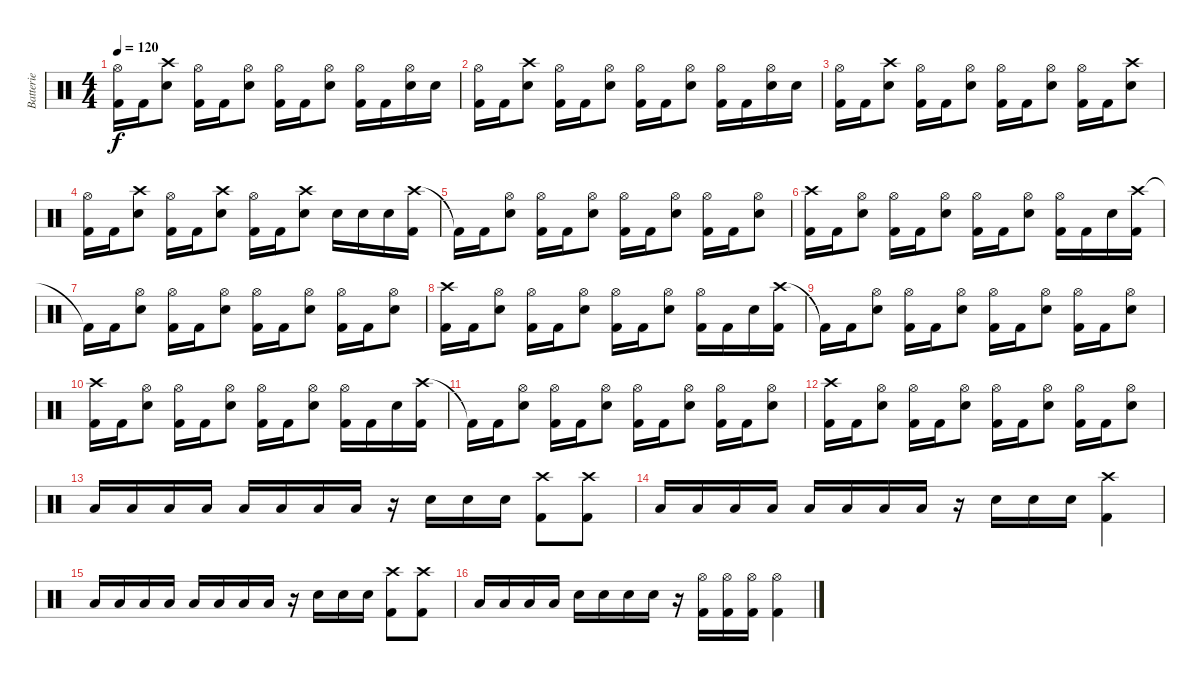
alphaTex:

\track ("Batterie" "Batterie") {instrument percussion}
\staff {score}
\articulation defaults
\ts (4 4)
\tempo 120
\clef neutral
\ks c
("Hi-Hat (open)" "Kick (hit) 2").16{dy f} "Kick (hit) 2".16 ("Crash high (hit)" "Electric Snare (hit)").8 ("Hi-Hat (open)" "Kick (hit) 2").16 "Kick (hit) 2".16 ("Hi-Hat (open)" "Electric Snare (hit)").8 ("Hi-Hat (open)" "Kick (hit) 2").16 "Kick (hit) 2".16 ("Hi-Hat (open)" "Electric Snare (hit)").8 ("Hi-Hat (open)" "Kick (hit) 2").16 "Kick (hit) 2".16 ("Hi-Hat (open)" "Electric Snare (hit)").16 "Electric Snare (hit)".16 |
("Hi-Hat (open)" "Kick (hit) 2").16 "Kick (hit) 2".16 ("Crash high (hit)" "Electric Snare (hit)").8 ("Hi-Hat (open)" "Kick (hit) 2").16 "Kick (hit) 2".16 ("Hi-Hat (open)" "Electric Snare (hit)").8 ("Hi-Hat (open)" "Kick (hit) 2").16 "Kick (hit) 2".16 ("Hi-Hat (open)" "Electric Snare (hit)").8 ("Hi-Hat (open)" "Kick (hit) 2").16 "Kick (hit) 2".16 ("Hi-Hat (open)" "Electric Snare (hit)").16 "Electric Snare (hit)".16 |
("Hi-Hat (open)" "Kick (hit) 2").16 "Kick (hit) 2".16 ("Crash high (hit)" "Electric Snare (hit)").8 ("Hi-Hat (open)" "Kick (hit) 2").16 "Kick (hit) 2".16 ("Hi-Hat (open)" "Electric Snare (hit)").8 ("Hi-Hat (open)" "Kick (hit) 2").16 "Kick (hit) 2".16 ("Hi-Hat (open)" "Electric Snare (hit)").8 ("Hi-Hat (open)" "Kick (hit) 2").16 "Kick (hit) 2".16 ("Crash high (hit)" "Electric Snare (hit)").8 |
("Hi-Hat (open)" "Kick (hit) 2").16 "Kick (hit) 2".16 ("Crash high (hit)" "Electric Snare (hit)").8 ("Hi-Hat (open)" "Kick (hit) 2").16 "Kick (hit) 2".16 ("Crash high (hit)" "Electric Snare (hit)").8 ("Hi-Hat (open)" "Kick (hit) 2").16 "Kick (hit) 2".16 ("Crash high (hit)" "Electric Snare (hit)").8 "Electric Snare (hit)".16 "Electric Snare (hit)".16 "Electric Snare (hit)".16 ("Crash high (hit)" "Kick (hit) 2").16 |
"Kick (hit) 2"{t}.16 "Kick (hit) 2".16 ("Hi-Hat (open)" "Electric Snare (hit)").8 ("Hi-Hat (open)" "Kick (hit) 2").16 "Kick (hit) 2".16 ("Hi-Hat (open)" "Electric Snare (hit)").8 ("Hi-Hat (open)" "Kick (hit) 2").16 "Kick (hit) 2".16 ("Hi-Hat (open)" "Electric Snare (hit)").8 ("Hi-Hat (open)" "Kick (hit) 2").16 "Kick (hit) 2".16 ("Hi-Hat (open)" "Electric Snare (hit)").8 |
("Crash high (hit)" "Kick (hit) 2").16 "Kick (hit) 2".16 ("Hi-Hat (open)" "Electric Snare (hit)").8 ("Hi-Hat (open)" "Kick (hit) 2").16 "Kick (hit) 2".16 ("Hi-Hat (open)" "Electric Snare (hit)").8 ("Hi-Hat (open)" "Kick (hit) 2").16 "Kick (hit) 2".16 ("Hi-Hat (open)" "Electric Snare (hit)").8 ("Hi-Hat (open)" "Kick (hit) 2").16 "Kick (hit) 2".16 "Snare (hit) 2".16 ("Crash high (hit)" "Kick (hit) 2").16 |
"Kick (hit) 2"{t}.16 "Kick (hit) 2".16 ("Hi-Hat (open)" "Electric Snare (hit)").8 ("Hi-Hat (open)" "Kick (hit) 2").16 "Kick (hit) 2".16 ("Hi-Hat (open)" "Electric Snare (hit)").8 ("Hi-Hat (open)" "Kick (hit) 2").16 "Kick (hit) 2".16 ("Hi-Hat (open)" "Electric Snare (hit)").8 ("Hi-Hat (open)" "Kick (hit) 2").16 "Kick (hit) 2".16 ("Hi-Hat (open)" "Electric Snare (hit)").8 |
("Crash high (hit)" "Kick (hit) 2").16 "Kick (hit) 2".16 ("Hi-Hat (open)" "Electric Snare (hit)").8 ("Hi-Hat (open)" "Kick (hit) 2").16 "Kick (hit) 2".16 ("Hi-Hat (open)" "Electric Snare (hit)").8 ("Hi-Hat (open)" "Kick (hit) 2").16 "Kick (hit) 2".16 ("Hi-Hat (open)" "Electric Snare (hit)").8 ("Hi-Hat (open)" "Kick (hit) 2").16 "Kick (hit) 2".16 "Electric Snare (hit)".16 ("Crash high (hit)" "Kick (hit) 2").16 |
"Kick (hit) 2"{t}.16 "Kick (hit) 2".16 ("Hi-Hat (open)" "Electric Snare (hit)").8 ("Hi-Hat (open)" "Kick (hit) 2").16 "Kick (hit) 2".16 ("Hi-Hat (open)" "Electric Snare (hit)").8 ("Hi-Hat (open)" "Kick (hit) 2").16 "Kick (hit) 2".16 ("Hi-Hat (open)" "Electric Snare (hit)").8 ("Hi-Hat (open)" "Kick (hit) 2").16 "Kick (hit) 2".16 ("Hi-Hat (open)" "Electric Snare (hit)").8 |
("Crash high (hit)" "Kick (hit) 2").16 "Kick (hit) 2".16 ("Hi-Hat (open)" "Electric Snare (hit)").8 ("Hi-Hat (open)" "Kick (hit) 2").16 "Kick (hit) 2".16 ("Hi-Hat (open)" "Electric Snare (hit)").8 ("Hi-Hat (open)" "Kick (hit) 2").16 "Kick (hit) 2".16 ("Hi-Hat (open)" "Electric Snare (hit)").8 ("Hi-Hat (open)" "Kick (hit) 2").16 "Kick (hit) 2".16 "Electric Snare (hit)".16 ("Crash high (hit)" "Kick (hit) 2").16 |
"Kick (hit) 2"{t}.16 "Kick (hit) 2".16 ("Hi-Hat (open)" "Electric Snare (hit)").8 ("Hi-Hat (open)" "Kick (hit) 2").16 "Kick (hit) 2".16 ("Hi-Hat (open)" "Electric Snare (hit)").8 ("Hi-Hat (open)" "Kick (hit) 2").16 "Kick (hit) 2".16 ("Hi-Hat (open)" "Electric Snare (hit)").8 ("Hi-Hat (open)" "Kick (hit) 2").16 "Kick (hit) 2".16 ("Hi-Hat (open)" "Electric Snare (hit)").8 |
("Crash high (hit)" "Kick (hit) 2").16 "Kick (hit) 2".16 ("Hi-Hat (open)" "Electric Snare (hit)").8 ("Hi-Hat (open)" "Kick (hit) 2").16 "Kick (hit) 2".16 ("Hi-Hat (open)" "Electric Snare (hit)").8 ("Hi-Hat (open)" "Kick (hit) 2").16 "Kick (hit) 2".16 ("Hi-Hat (open)" "Electric Snare (hit)").8 ("Hi-Hat (open)" "Kick (hit) 2").16 "Kick (hit) 2".16 ("Hi-Hat (open)" "Electric Snare (hit)").8 |
"Low Tom (hit)".16 "Low Tom (hit)".16 "Low Tom (hit)".16 "Low Tom (hit)".16 "Low Floor Tom (hit)".16 "Low Floor Tom (hit)".16 "Low Floor Tom (hit)".16 "Low Floor Tom (hit)".16 r.16 "Electric Snare (hit)".16 "Electric Snare (hit)".16 "Electric Snare (hit)".16 ("Crash high (hit)" "Kick (hit) 2").8 ("Crash high (hit)" "Kick (hit) 2").8 |
"Low Tom (hit)".16 "Low Tom (hit)".16 "Low Tom (hit)".16 "Low Tom (hit)".16 "Low Floor Tom (hit)".16 "Low Floor Tom (hit)".16 "Low Floor Tom (hit)".16 "Low Floor Tom (hit)".16 r.16 "Electric Snare (hit)".16 "Electric Snare (hit)".16 "Electric Snare (hit)".16 ("Crash high (hit)" "Kick (hit) 2").4 |
"Low Tom (hit)".16 "Low Tom (hit)".16 "Low Tom (hit)".16 "Low Tom (hit)".16 "Low Floor Tom (hit)".16 "Low Floor Tom (hit)".16 "Low Floor Tom (hit)".16 "Low Floor Tom (hit)".16 r.16 "Electric Snare (hit)".16 "Electric Snare (hit)".16 "Electric Snare (hit)".16 ("Crash high (hit)" "Kick (hit) 2").8 ("Crash high (hit)" "Kick (hit) 2").8 |
"Low Tom (hit)".16 "Low Tom (hit)".16 "Low Tom (hit)".16 "Low Tom (hit)".16 "Electric Snare (hit)".16 "Electric Snare (hit)".16 "Electric Snare (hit)".16 "Electric Snare (hit)".16 r.16 ("Hi-Hat (open)" "Kick (hit) 2").16 ("Hi-Hat (open)" "Kick (hit) 2").16 ("Hi-Hat (open)" "Kick (hit) 2").16 ("Hi-Hat (open)" "Kick (hit) 2").4
